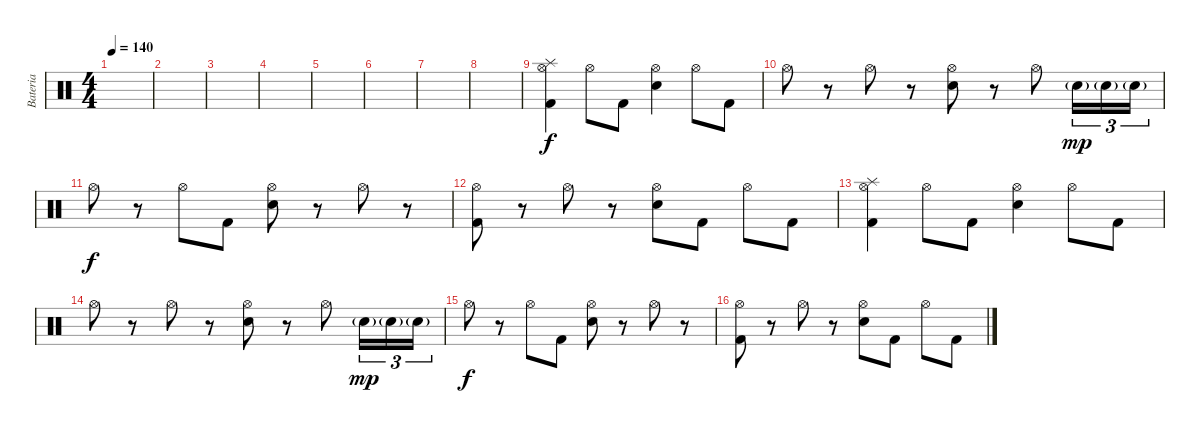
\track ("Bateria" "Bateria") {instrument percussion}
\staff {score}
\articulation defaults
\ts (4 4)
\tempo 140
\clef neutral
\ks c
|
|
|
|
|
|
|
|
("Hi-Hat (open)" "Splash (hit)" "Kick (hit) 2").4 "Hi-Hat (open)".8 "Kick (hit) 2".8 ("Hi-Hat (open)" "Electric Snare (hit)").4 "Hi-Hat (open)".8 "Kick (hit) 2".8 |
"Hi-Hat (open)".8 r.8 "Hi-Hat (open)".8 r.8 ("Hi-Hat (open)" "Electric Snare (hit)").8 r.8 "Hi-Hat (open)".8 "Electric Snare (hit)"{g}.16{tu (3 2) dy mp} "Electric Snare (hit)"{g}.16{tu (3 2)} "Electric Snare (hit)"{g}.16{tu (3 2)} |
"Hi-Hat (open)".8{dy f} r.8 "Hi-Hat (open)".8 "Kick (hit) 2".8 ("Hi-Hat (open)" "Electric Snare (hit)").8 r.8 "Hi-Hat (open)".8 r.8 |
("Hi-Hat (open)" "Kick (hit) 2").8 r.8 "Hi-Hat (open)".8 r.8 ("Hi-Hat (open)" "Electric Snare (hit)").8 "Kick (hit) 2".8 "Hi-Hat (open)".8 "Kick (hit) 2".8 |
("Hi-Hat (open)" "Splash (hit)" "Kick (hit) 2").4 "Hi-Hat (open)".8 "Kick (hit) 2".8 ("Hi-Hat (open)" "Electric Snare (hit)").4 "Hi-Hat (open)".8 "Kick (hit) 2".8 |
"Hi-Hat (open)".8 r.8 "Hi-Hat (open)".8 r.8 ("Hi-Hat (open)" "Electric Snare (hit)").8 r.8 "Hi-Hat (open)".8 "Electric Snare (hit)"{g}.16{tu (3 2) dy mp} "Electric Snare (hit)"{g}.16{tu (3 2)} "Electric Snare (hit)"{g}.16{tu (3 2)} |
"Hi-Hat (open)".8{dy f} r.8 "Hi-Hat (open)".8 "Kick (hit) 2".8 ("Hi-Hat (open)" "Electric Snare (hit)").8 r.8 "Hi-Hat (open)".8 r.8 |
("Hi-Hat (open)" "Kick (hit) 2").8 r.8 "Hi-Hat (open)".8 r.8 ("Hi-Hat (open)" "Electric Snare (hit)").8 "Kick (hit) 2".8 "Hi-Hat (open)".8 "Kick (hit) 2".8
